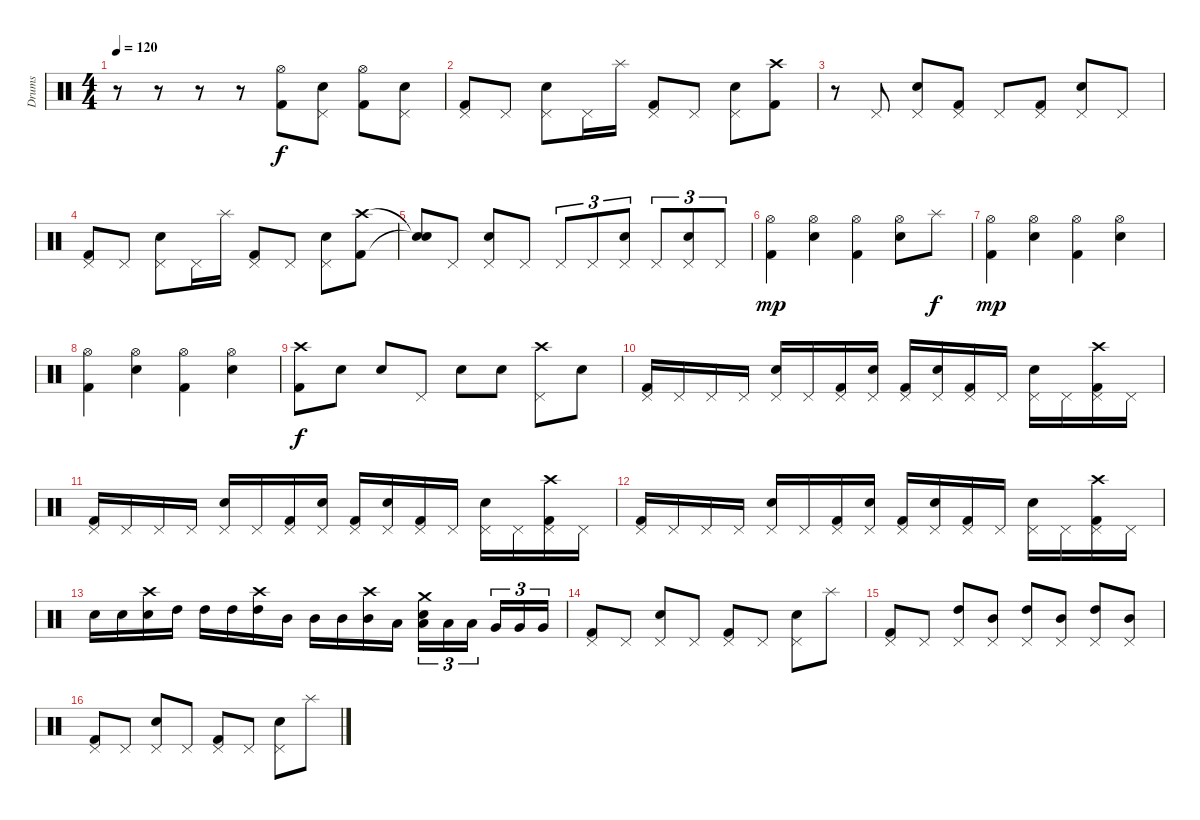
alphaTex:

\track ("Drums" "Drums") {instrument percussion}
\staff {score}
\articulation defaults
\ts (4 4)
\tempo 120
\clef neutral
\ks c
r.8{dy f} r.8 r.8 r.8 ("Hi-Hat (open)" "Kick (hit) 2").8 ("Pedal Hi-Hat (hit)" "Electric Snare (hit)").8 ("Hi-Hat (open)" "Kick (hit) 2").8 ("Pedal Hi-Hat (hit)" "Electric Snare (hit)").8 |
("Pedal Hi-Hat (hit)" "Kick (hit) 2").8 "Pedal Hi-Hat (hit)".8 ("Pedal Hi-Hat (hit)" "Electric Snare (hit)").8 "Pedal Hi-Hat (hit)".16 "Splash (hit)".16 ("Pedal Hi-Hat (hit)" "Kick (hit) 2").8 "Pedal Hi-Hat (hit)".8 ("Pedal Hi-Hat (hit)" "Electric Snare (hit)").8 ("Crash high (hit)" "Kick (hit) 2").8 |
r.8 "Pedal Hi-Hat (hit)".8 ("Pedal Hi-Hat (hit)" "Electric Snare (hit)").8 ("Pedal Hi-Hat (hit)" "Kick (hit) 2").8 "Pedal Hi-Hat (hit)".8 ("Pedal Hi-Hat (hit)" "Kick (hit) 2").8 ("Pedal Hi-Hat (hit)" "Electric Snare (hit)").8 "Pedal Hi-Hat (hit)".8 |
("Pedal Hi-Hat (hit)" "Kick (hit) 2").8 "Pedal Hi-Hat (hit)".8 ("Pedal Hi-Hat (hit)" "Electric Snare (hit)").8 "Pedal Hi-Hat (hit)".16 "Splash (hit)".16 ("Pedal Hi-Hat (hit)" "Kick (hit) 2").8 "Pedal Hi-Hat (hit)".8 ("Pedal Hi-Hat (hit)" "Electric Snare (hit)").8 ("Crash high (hit)" "Kick (hit) 2").8 |
("Snare (hit)"{t} "Snare (hit)"{t}).8 "Pedal Hi-Hat (hit)".8 ("Pedal Hi-Hat (hit)" "Electric Snare (hit)").8 "Pedal Hi-Hat (hit)".8 "Pedal Hi-Hat (hit)".8{tu (3 2)} "Pedal Hi-Hat (hit)".8{tu (3 2)} ("Pedal Hi-Hat (hit)" "Electric Snare (hit)").8{tu (3 2)} "Pedal Hi-Hat (hit)".8{tu (3 2)} ("Pedal Hi-Hat (hit)" "Electric Snare (hit)").8{tu (3 2)} "Pedal Hi-Hat (hit)".8{tu (3 2)} |
("Hi-Hat (open)" "Kick (hit) 2").4{dy mp} ("Hi-Hat (open)" "Electric Snare (hit)").4 ("Hi-Hat (open)" "Kick (hit) 2").4 ("Hi-Hat (open)" "Electric Snare (hit)").8 "Splash (hit)".8{dy f} |
("Hi-Hat (open)" "Kick (hit) 2").4{dy mp} ("Hi-Hat (open)" "Electric Snare (hit)").4 ("Hi-Hat (open)" "Kick (hit) 2").4 ("Hi-Hat (open)" "Electric Snare (hit)").4 |
("Hi-Hat (open)" "Kick (hit) 2").4 ("Hi-Hat (open)" "Electric Snare (hit)").4 ("Hi-Hat (open)" "Kick (hit) 2").4 ("Hi-Hat (open)" "Electric Snare (hit)").4 |
("Crash high (hit)" "Kick (hit) 2").8{dy f} "Electric Snare (hit)".8 "Electric Snare (hit)".8 "Pedal Hi-Hat (hit)".8 "Electric Snare (hit)".8 "Electric Snare (hit)".8 ("Crash high (hit)" "Pedal Hi-Hat (hit)").8 "Electric Snare (hit)".8 |
("Pedal Hi-Hat (hit)" "Kick (hit) 2").16 "Pedal Hi-Hat (hit)".16 "Pedal Hi-Hat (hit)".16 "Pedal Hi-Hat (hit)".16 ("Pedal Hi-Hat (hit)" "Electric Snare (hit)").16 "Pedal Hi-Hat (hit)".16 ("Pedal Hi-Hat (hit)" "Kick (hit) 2").16 ("Pedal Hi-Hat (hit)" "Electric Snare (hit)").16 ("Pedal Hi-Hat (hit)" "Kick (hit) 2").16 ("Pedal Hi-Hat (hit)" "Electric Snare (hit)").16 ("Pedal Hi-Hat (hit)" "Kick (hit) 2").16 "Pedal Hi-Hat (hit)".16 ("Pedal Hi-Hat (hit)" "Electric Snare (hit)").16 "Pedal Hi-Hat (hit)".16 ("Crash high (hit)" "Pedal Hi-Hat (hit)" "Kick (hit) 2").16 "Pedal Hi-Hat (hit)".16 |
("Pedal Hi-Hat (hit)" "Kick (hit) 2").16 "Pedal Hi-Hat (hit)".16 "Pedal Hi-Hat (hit)".16 "Pedal Hi-Hat (hit)".16 ("Pedal Hi-Hat (hit)" "Electric Snare (hit)").16 "Pedal Hi-Hat (hit)".16 ("Pedal Hi-Hat (hit)" "Kick (hit) 2").16 ("Pedal Hi-Hat (hit)" "Electric Snare (hit)").16 ("Pedal Hi-Hat (hit)" "Kick (hit) 2").16 ("Pedal Hi-Hat (hit)" "Electric Snare (hit)").16 ("Pedal Hi-Hat (hit)" "Kick (hit) 2").16 "Pedal Hi-Hat (hit)".16 ("Pedal Hi-Hat (hit)" "Electric Snare (hit)").16 "Pedal Hi-Hat (hit)".16 ("Crash high (hit)" "Pedal Hi-Hat (hit)" "Kick (hit) 2").16 "Pedal Hi-Hat (hit)".16 |
("Pedal Hi-Hat (hit)" "Kick (hit) 2").16 "Pedal Hi-Hat (hit)".16 "Pedal Hi-Hat (hit)".16 "Pedal Hi-Hat (hit)".16 ("Pedal Hi-Hat (hit)" "Electric Snare (hit)").16 "Pedal Hi-Hat (hit)".16 ("Pedal Hi-Hat (hit)" "Kick (hit) 2").16 ("Pedal Hi-Hat (hit)" "Electric Snare (hit)").16 ("Pedal Hi-Hat (hit)" "Kick (hit) 2").16 ("Pedal Hi-Hat (hit)" "Electric Snare (hit)").16 ("Pedal Hi-Hat (hit)" "Kick (hit) 2").16 "Pedal Hi-Hat (hit)".16 ("Pedal Hi-Hat (hit)" "Electric Snare (hit)").16 "Pedal Hi-Hat (hit)".16 ("Crash high (hit)" "Pedal Hi-Hat (hit)" "Kick (hit) 2").16 "Pedal Hi-Hat (hit)".16 |
"Electric Snare (hit)".16 "Electric Snare (hit)".16 ("Crash high (hit)" "Electric Snare (hit)").16 "High Tom (hit)".16 "High Tom (hit)".16 "High Tom (hit)".16 ("Crash high (hit)" "High Tom (hit)").16 "Mid Tom (hit)".16 "Mid Tom (hit)".16 "Mid Tom (hit)".16 ("Crash high (hit)" "Mid Tom (hit)").16 "Low Tom (hit)".16 ("Crash medium (hit)" "Electric Snare (hit)" "Low Tom (hit)").16{tu (3 2)} "Low Tom (hit)".16{tu (3 2)} "Low Tom (hit)".16{tu (3 2)} "Very Low Tom (hit)".16{tu (3 2)} "Very Low Tom (hit)".16{tu (3 2)} "Very Low Tom (hit)".16{tu (3 2)} |
("Pedal Hi-Hat (hit)" "Kick (hit) 2").8 "Pedal Hi-Hat (hit)".8 ("Pedal Hi-Hat (hit)" "Electric Snare (hit)").8 "Pedal Hi-Hat (hit)".8 ("Pedal Hi-Hat (hit)" "Kick (hit) 2").8 "Pedal Hi-Hat (hit)".8 ("Pedal Hi-Hat (hit)" "Electric Snare (hit)").8 "Splash (hit)".8 |
("Pedal Hi-Hat (hit)" "Kick (hit) 2").8 "Pedal Hi-Hat (hit)".8 ("Pedal Hi-Hat (hit)" "High Tom (hit)").8 ("Pedal Hi-Hat (hit)" "Mid Tom (hit)").8 ("Pedal Hi-Hat (hit)" "High Tom (hit)").8 ("Pedal Hi-Hat (hit)" "Mid Tom (hit)").8 ("Pedal Hi-Hat (hit)" "High Tom (hit)").8 ("Pedal Hi-Hat (hit)" "Mid Tom (hit)").8 |
("Pedal Hi-Hat (hit)" "Kick (hit) 2").8 "Pedal Hi-Hat (hit)".8 ("Pedal Hi-Hat (hit)" "Electric Snare (hit)").8 "Pedal Hi-Hat (hit)".8 ("Pedal Hi-Hat (hit)" "Kick (hit) 2").8 "Pedal Hi-Hat (hit)".8 ("Pedal Hi-Hat (hit)" "Electric Snare (hit)").8 "Splash (hit)".8
